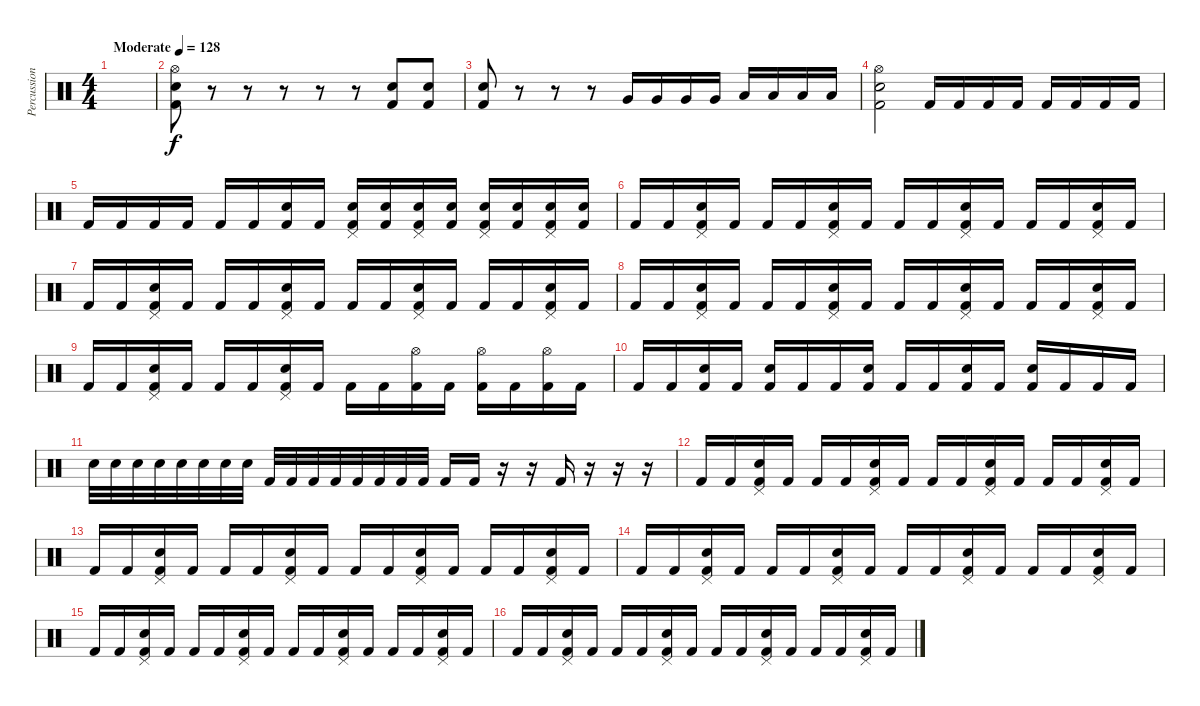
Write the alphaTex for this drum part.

\track ("Percussion" "Percussion") {instrument percussion}
\staff {score}
\articulation defaults
\ts (4 4)
\tempo (128 "Moderate")
\clef neutral
\ks c
|
("Hi-Hat (open)" "Snare (hit) 2" "Kick (hit) 2").8 r.8 r.8 r.8 r.8 r.8 ("Snare (hit) 2" "Kick (hit) 2").8 ("Snare (hit) 2" "Kick (hit) 2").8 |
("Snare (hit) 2" "Kick (hit) 2").8 r.8 r.8 r.8 "Very Low Tom (hit)".16 "Very Low Tom (hit)".16 "Very Low Tom (hit)".16 "Very Low Tom (hit)".16 "Low Floor Tom (hit)".16 "Low Floor Tom (hit)".16 "Low Floor Tom (hit)".16 "Low Floor Tom (hit)".16 |
("Hi-Hat (open)" "Snare (hit) 2" "Kick (hit) 2").2 "Kick (hit) 2".16 "Kick (hit) 2".16 "Kick (hit) 2".16 "Kick (hit) 2".16 "Kick (hit) 2".16 "Kick (hit) 2".16 "Kick (hit) 2".16 "Kick (hit) 2".16 |
"Kick (hit) 2".16 "Kick (hit) 2".16 "Kick (hit) 2".16 "Kick (hit) 2".16 "Kick (hit) 2".16 "Kick (hit) 2".16 ("Snare (hit) 2" "Kick (hit) 2").16 "Kick (hit) 2".16 ("Pedal Hi-Hat (hit)" "Snare (hit) 2" "Kick (hit) 2").16 ("Snare (hit) 2" "Kick (hit) 2").16 ("Pedal Hi-Hat (hit)" "Snare (hit) 2" "Kick (hit) 2").16 ("Snare (hit) 2" "Kick (hit) 2").16 ("Pedal Hi-Hat (hit)" "Snare (hit) 2" "Kick (hit) 2").16 ("Snare (hit) 2" "Kick (hit) 2").16 ("Pedal Hi-Hat (hit)" "Snare (hit) 2" "Kick (hit) 2").16 ("Snare (hit) 2" "Kick (hit) 2").16 |
"Kick (hit) 2".16 "Kick (hit) 2".16 ("Pedal Hi-Hat (hit)" "Snare (hit) 2" "Kick (hit) 2").16 "Kick (hit) 2".16 "Kick (hit) 2".16 "Kick (hit) 2".16 ("Pedal Hi-Hat (hit)" "Snare (hit) 2" "Kick (hit) 2").16 "Kick (hit) 2".16 "Kick (hit) 2".16 "Kick (hit) 2".16 ("Pedal Hi-Hat (hit)" "Snare (hit) 2" "Kick (hit) 2").16 "Kick (hit) 2".16 "Kick (hit) 2".16 "Kick (hit) 2".16 ("Pedal Hi-Hat (hit)" "Snare (hit) 2" "Kick (hit) 2").16 "Kick (hit) 2".16 |
"Kick (hit) 2".16 "Kick (hit) 2".16 ("Pedal Hi-Hat (hit)" "Snare (hit) 2" "Kick (hit) 2").16 "Kick (hit) 2".16 "Kick (hit) 2".16 "Kick (hit) 2".16 ("Pedal Hi-Hat (hit)" "Snare (hit) 2" "Kick (hit) 2").16 "Kick (hit) 2".16 "Kick (hit) 2".16 "Kick (hit) 2".16 ("Pedal Hi-Hat (hit)" "Snare (hit) 2" "Kick (hit) 2").16 "Kick (hit) 2".16 "Kick (hit) 2".16 "Kick (hit) 2".16 ("Pedal Hi-Hat (hit)" "Snare (hit) 2" "Kick (hit) 2").16 "Kick (hit) 2".16 |
"Kick (hit) 2".16 "Kick (hit) 2".16 ("Pedal Hi-Hat (hit)" "Snare (hit) 2" "Kick (hit) 2").16 "Kick (hit) 2".16 "Kick (hit) 2".16 "Kick (hit) 2".16 ("Pedal Hi-Hat (hit)" "Snare (hit) 2" "Kick (hit) 2").16 "Kick (hit) 2".16 "Kick (hit) 2".16 "Kick (hit) 2".16 ("Pedal Hi-Hat (hit)" "Snare (hit) 2" "Kick (hit) 2").16 "Kick (hit) 2".16 "Kick (hit) 2".16 "Kick (hit) 2".16 ("Pedal Hi-Hat (hit)" "Snare (hit) 2" "Kick (hit) 2").16 "Kick (hit) 2".16 |
"Kick (hit) 2".16 "Kick (hit) 2".16 ("Pedal Hi-Hat (hit)" "Snare (hit) 2" "Kick (hit) 2").16 "Kick (hit) 2".16 "Kick (hit) 2".16 "Kick (hit) 2".16 ("Pedal Hi-Hat (hit)" "Snare (hit) 2" "Kick (hit) 2").16 "Kick (hit) 2".16 "Kick (hit) 2".16 "Kick (hit) 2".16 ("Hi-Hat (open)" "Kick (hit) 2").16 "Kick (hit) 2".16 ("Hi-Hat (open)" "Kick (hit) 2").16 "Kick (hit) 2".16 ("Hi-Hat (open)" "Kick (hit) 2").16 "Kick (hit) 2".16 |
"Kick (hit) 2".16 "Kick (hit) 2".16 ("Snare (hit) 2" "Kick (hit) 2").16 "Kick (hit) 2".16 ("Snare (hit) 2" "Kick (hit) 2").16 "Kick (hit) 2".16 "Kick (hit) 2".16 ("Snare (hit) 2" "Kick (hit) 2").16 "Kick (hit) 2".16 "Kick (hit) 2".16 ("Snare (hit) 2" "Kick (hit) 2").16 "Kick (hit) 2".16 ("Snare (hit) 2" "Kick (hit) 2").16 "Kick (hit) 2".16 "Kick (hit) 2".16 "Kick (hit) 2".16 |
"Snare (hit) 2".32 "Snare (hit) 2".32 "Snare (hit) 2".32 "Snare (hit) 2".32 "Snare (hit) 2".32 "Snare (hit) 2".32 "Snare (hit) 2".32 "Snare (hit) 2".32 "Kick (hit) 2".32 "Kick (hit) 2".32 "Kick (hit) 2".32 "Kick (hit) 2".32 "Kick (hit) 2".32 "Kick (hit) 2".32 "Kick (hit) 2".32 "Kick (hit) 2".32 "Kick (hit) 2".16 "Kick (hit) 2".16 r.16 r.16 "Kick (hit) 2".16 r.16 r.16 r.16 |
"Kick (hit) 2".16 "Kick (hit) 2".16 ("Pedal Hi-Hat (hit)" "Snare (hit) 2" "Kick (hit) 2").16 "Kick (hit) 2".16 "Kick (hit) 2".16 "Kick (hit) 2".16 ("Pedal Hi-Hat (hit)" "Snare (hit) 2" "Kick (hit) 2").16 "Kick (hit) 2".16 "Kick (hit) 2".16 "Kick (hit) 2".16 ("Pedal Hi-Hat (hit)" "Snare (hit) 2" "Kick (hit) 2").16 "Kick (hit) 2".16 "Kick (hit) 2".16 "Kick (hit) 2".16 ("Pedal Hi-Hat (hit)" "Snare (hit) 2" "Kick (hit) 2").16 "Kick (hit) 2".16 |
"Kick (hit) 2".16 "Kick (hit) 2".16 ("Pedal Hi-Hat (hit)" "Snare (hit) 2" "Kick (hit) 2").16 "Kick (hit) 2".16 "Kick (hit) 2".16 "Kick (hit) 2".16 ("Pedal Hi-Hat (hit)" "Snare (hit) 2" "Kick (hit) 2").16 "Kick (hit) 2".16 "Kick (hit) 2".16 "Kick (hit) 2".16 ("Pedal Hi-Hat (hit)" "Snare (hit) 2" "Kick (hit) 2").16 "Kick (hit) 2".16 "Kick (hit) 2".16 "Kick (hit) 2".16 ("Pedal Hi-Hat (hit)" "Snare (hit) 2" "Kick (hit) 2").16 "Kick (hit) 2".16 |
"Kick (hit) 2".16 "Kick (hit) 2".16 ("Pedal Hi-Hat (hit)" "Snare (hit) 2" "Kick (hit) 2").16 "Kick (hit) 2".16 "Kick (hit) 2".16 "Kick (hit) 2".16 ("Pedal Hi-Hat (hit)" "Snare (hit) 2" "Kick (hit) 2").16 "Kick (hit) 2".16 "Kick (hit) 2".16 "Kick (hit) 2".16 ("Pedal Hi-Hat (hit)" "Snare (hit) 2" "Kick (hit) 2").16 "Kick (hit) 2".16 "Kick (hit) 2".16 "Kick (hit) 2".16 ("Pedal Hi-Hat (hit)" "Snare (hit) 2" "Kick (hit) 2").16 "Kick (hit) 2".16 |
"Kick (hit) 2".16 "Kick (hit) 2".16 ("Pedal Hi-Hat (hit)" "Snare (hit) 2" "Kick (hit) 2").16 "Kick (hit) 2".16 "Kick (hit) 2".16 "Kick (hit) 2".16 ("Pedal Hi-Hat (hit)" "Snare (hit) 2" "Kick (hit) 2").16 "Kick (hit) 2".16 "Kick (hit) 2".16 "Kick (hit) 2".16 ("Pedal Hi-Hat (hit)" "Snare (hit) 2" "Kick (hit) 2").16 "Kick (hit) 2".16 "Kick (hit) 2".16 "Kick (hit) 2".16 ("Pedal Hi-Hat (hit)" "Snare (hit) 2" "Kick (hit) 2").16 "Kick (hit) 2".16 |
"Kick (hit) 2".16 "Kick (hit) 2".16 ("Pedal Hi-Hat (hit)" "Snare (hit) 2" "Kick (hit) 2").16 "Kick (hit) 2".16 "Kick (hit) 2".16 "Kick (hit) 2".16 ("Pedal Hi-Hat (hit)" "Snare (hit) 2" "Kick (hit) 2").16 "Kick (hit) 2".16 "Kick (hit) 2".16 "Kick (hit) 2".16 ("Pedal Hi-Hat (hit)" "Snare (hit) 2" "Kick (hit) 2").16 "Kick (hit) 2".16 "Kick (hit) 2".16 "Kick (hit) 2".16 ("Pedal Hi-Hat (hit)" "Snare (hit) 2" "Kick (hit) 2").16 "Kick (hit) 2".16
